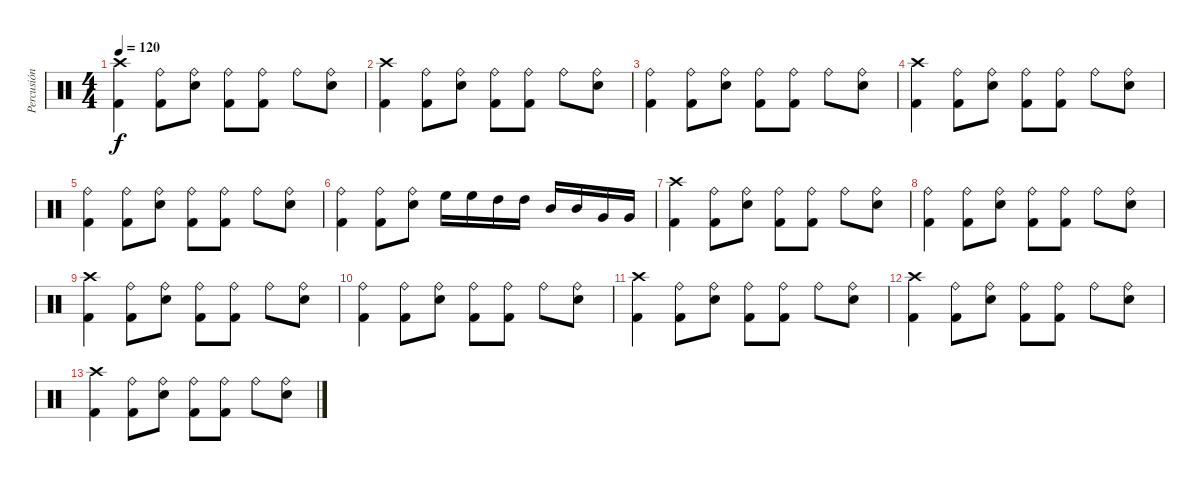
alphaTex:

\track ("Percusión" "Percusión") {instrument percussion}
\staff {score}
\articulation defaults
\ts (4 4)
\tempo 120
\clef neutral
\ks c
("Crash high (hit)" "Kick (hit) 2").4{dy f} ("Ride (bell)" "Kick (hit) 2").8 ("Ride (bell)" "Snare (hit) 2").8 ("Ride (bell)" "Kick (hit) 2").8 ("Ride (bell)" "Kick (hit) 2").8 "Ride (bell)".8 ("Ride (bell)" "Snare (hit) 2").8 |
("Crash high (hit)" "Kick (hit) 2").4 ("Ride (bell)" "Kick (hit) 2").8 ("Ride (bell)" "Snare (hit) 2").8 ("Ride (bell)" "Kick (hit) 2").8 ("Ride (bell)" "Kick (hit) 2").8 "Ride (bell)".8 ("Ride (bell)" "Snare (hit) 2").8 |
("Ride (bell)" "Kick (hit) 2").4 ("Ride (bell)" "Kick (hit) 2").8 ("Ride (bell)" "Snare (hit) 2").8 ("Ride (bell)" "Kick (hit) 2").8 ("Ride (bell)" "Kick (hit) 2").8 "Ride (bell)".8 ("Ride (bell)" "Snare (hit) 2").8 |
("Crash high (hit)" "Kick (hit) 2").4 ("Ride (bell)" "Kick (hit) 2").8 ("Ride (bell)" "Snare (hit) 2").8 ("Ride (bell)" "Kick (hit) 2").8 ("Ride (bell)" "Kick (hit) 2").8 "Ride (bell)".8 ("Ride (bell)" "Snare (hit) 2").8 |
("Ride (bell)" "Kick (hit) 2").4 ("Ride (bell)" "Kick (hit) 2").8 ("Ride (bell)" "Snare (hit) 2").8 ("Ride (bell)" "Kick (hit) 2").8 ("Ride (bell)" "Kick (hit) 2").8 "Ride (bell)".8 ("Ride (bell)" "Snare (hit) 2").8 |
("Ride (bell)" "Kick (hit) 2").4 ("Ride (bell)" "Kick (hit) 2").8 ("Ride (bell)" "Snare (hit) 2").8 "High Floor Tom (hit)".16 "High Floor Tom (hit)".16 "High Tom (hit)".16 "High Tom (hit)".16 "Mid Tom (hit)".16 "Mid Tom (hit)".16 "Very Low Tom (hit)".16 "Very Low Tom (hit)".16 |
("Crash high (hit)" "Kick (hit) 2").4 ("Ride (bell)" "Kick (hit) 2").8 ("Ride (bell)" "Snare (hit) 2").8 ("Ride (bell)" "Kick (hit) 2").8 ("Ride (bell)" "Kick (hit) 2").8 "Ride (bell)".8 ("Ride (bell)" "Snare (hit) 2").8 |
("Ride (bell)" "Kick (hit) 2").4 ("Ride (bell)" "Kick (hit) 2").8 ("Ride (bell)" "Snare (hit) 2").8 ("Ride (bell)" "Kick (hit) 2").8 ("Ride (bell)" "Kick (hit) 2").8 "Ride (bell)".8 ("Ride (bell)" "Snare (hit) 2").8 |
("Crash high (hit)" "Kick (hit) 2").4 ("Ride (bell)" "Kick (hit) 2").8 ("Ride (bell)" "Snare (hit) 2").8 ("Ride (bell)" "Kick (hit) 2").8 ("Ride (bell)" "Kick (hit) 2").8 "Ride (bell)".8 ("Ride (bell)" "Snare (hit) 2").8 |
("Ride (bell)" "Kick (hit) 2").4 ("Ride (bell)" "Kick (hit) 2").8 ("Ride (bell)" "Snare (hit) 2").8 ("Ride (bell)" "Kick (hit) 2").8 ("Ride (bell)" "Kick (hit) 2").8 "Ride (bell)".8 ("Ride (bell)" "Snare (hit) 2").8 |
("Crash high (hit)" "Kick (hit) 2").4 ("Ride (bell)" "Kick (hit) 2").8 ("Ride (bell)" "Snare (hit) 2").8 ("Ride (bell)" "Kick (hit) 2").8 ("Ride (bell)" "Kick (hit) 2").8 "Ride (bell)".8 ("Ride (bell)" "Snare (hit) 2").8 |
("Crash high (hit)" "Kick (hit) 2").4 ("Ride (bell)" "Kick (hit) 2").8 ("Ride (bell)" "Snare (hit) 2").8 ("Ride (bell)" "Kick (hit) 2").8 ("Ride (bell)" "Kick (hit) 2").8 "Ride (bell)".8 ("Ride (bell)" "Snare (hit) 2").8 |
("Crash high (hit)" "Kick (hit) 2").4 ("Ride (bell)" "Kick (hit) 2").8 ("Ride (bell)" "Snare (hit) 2").8 ("Ride (bell)" "Kick (hit) 2").8 ("Ride (bell)" "Kick (hit) 2").8 "Ride (bell)".8 ("Ride (bell)" "Snare (hit) 2").8
